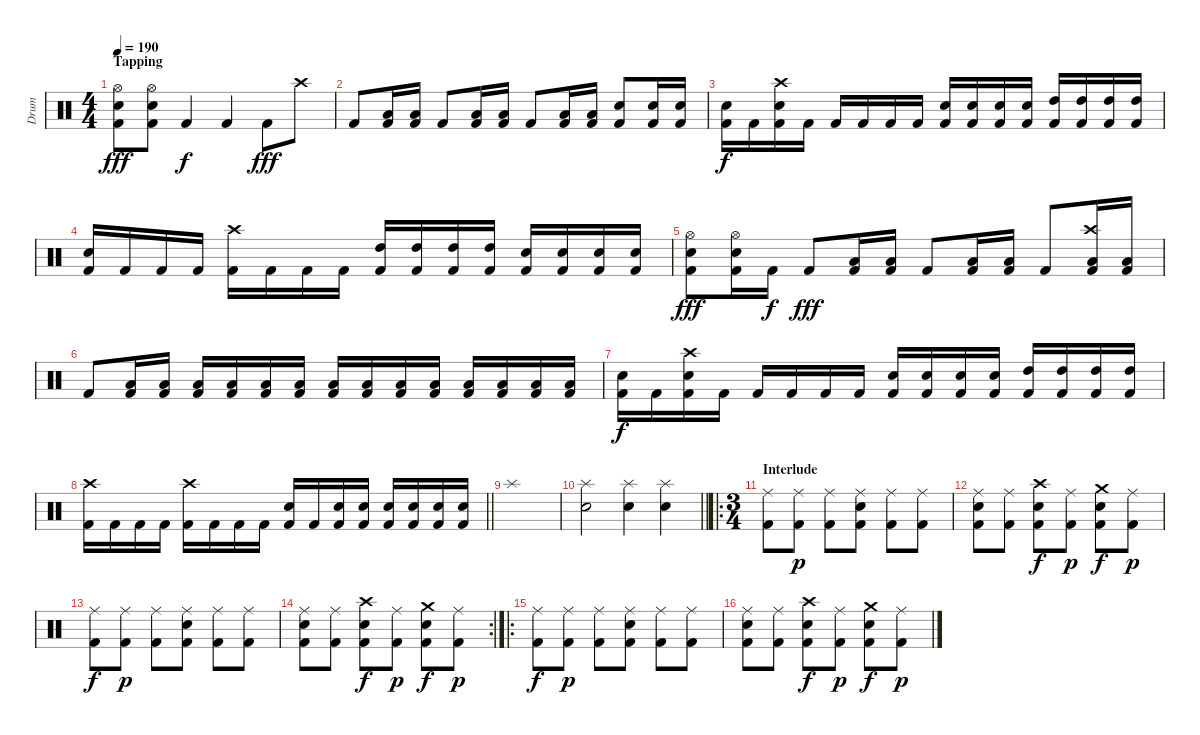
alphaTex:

\track ("Drum" "Drum") {instrument percussion}
\staff {score}
\articulation defaults
\ts (4 4)
\section ("" "Tapping")
\tempo 190
\clef neutral
\ks c
("Hi-Hat (open)" "Snare (hit) 2" "Kick (hit) 2").8{dy fff} ("Hi-Hat (open)" "Snare (hit) 2" "Kick (hit) 2").8 "Kick (hit) 2".4{dy f} "Kick (hit) 2".4 "Kick (hit) 2".8{dy fff} "Crash high (hit)".8 |
"Kick (hit) 2".8 ("Low Floor Tom (hit)" "Kick (hit) 2").16 ("Low Floor Tom (hit)" "Kick (hit) 2").16 "Kick (hit) 2".8 ("Low Floor Tom (hit)" "Kick (hit) 2").16 ("Low Floor Tom (hit)" "Kick (hit) 2").16 "Kick (hit) 2".8 ("Low Floor Tom (hit)" "Kick (hit) 2").16 ("Low Floor Tom (hit)" "Kick (hit) 2").16 ("Snare (hit) 2" "Kick (hit) 2").8 ("Snare (hit) 2" "Kick (hit) 2").16 ("Snare (hit) 2" "Kick (hit) 2").16 |
("Snare (hit) 2" "Kick (hit) 2").16{dy f} "Kick (hit) 2".16 ("Crash high (hit)" "Snare (hit) 2" "Kick (hit) 2").16 "Kick (hit) 2".16 "Kick (hit) 2".16 "Kick (hit) 2".16 "Kick (hit) 2".16 "Kick (hit) 2".16 ("Snare (hit) 2" "Kick (hit) 2").16 ("Snare (hit) 2" "Kick (hit) 2").16 ("Snare (hit) 2" "Kick (hit) 2").16 ("Snare (hit) 2" "Kick (hit) 2").16 ("High Tom (hit)" "Kick (hit) 2").16 ("High Tom (hit)" "Kick (hit) 2").16 ("High Tom (hit)" "Kick (hit) 2").16 ("High Tom (hit)" "Kick (hit) 2").16 |
("Snare (hit) 2" "Kick (hit) 2").16 "Kick (hit) 2".16 "Kick (hit) 2".16 "Kick (hit) 2".16 ("Crash high (hit)" "Kick (hit) 2").16 "Kick (hit) 2".16 "Kick (hit) 2".16 "Kick (hit) 2".16 ("High Tom (hit)" "Kick (hit) 2").16 ("High Tom (hit)" "Kick (hit) 2").16 ("High Tom (hit)" "Kick (hit) 2").16 ("High Tom (hit)" "Kick (hit) 2").16 ("Snare (hit) 2" "Kick (hit) 2").16 ("Snare (hit) 2" "Kick (hit) 2").16 ("Snare (hit) 2" "Kick (hit) 2").16 ("Snare (hit) 2" "Kick (hit) 2").16 |
("Hi-Hat (open)" "Snare (hit) 2" "Kick (hit) 2").8{dy fff} ("Hi-Hat (open)" "Snare (hit) 2" "Kick (hit) 2").16 "Kick (hit) 2".16{dy f} "Kick (hit) 2".8{dy fff} ("Low Floor Tom (hit)" "Kick (hit) 2").16 ("Low Floor Tom (hit)" "Kick (hit) 2").16 "Kick (hit) 2".8 ("Low Floor Tom (hit)" "Kick (hit) 2").16 ("Low Floor Tom (hit)" "Kick (hit) 2").16 "Kick (hit) 2".8 ("Crash high (hit)" "Low Floor Tom (hit)" "Kick (hit) 2").16 ("Low Floor Tom (hit)" "Kick (hit) 2").16 |
"Kick (hit) 2".8 ("Low Floor Tom (hit)" "Kick (hit) 2").16 ("Low Floor Tom (hit)" "Kick (hit) 2").16 ("Low Floor Tom (hit)" "Kick (hit) 2").16 ("Low Floor Tom (hit)" "Kick (hit) 2").16 ("Low Floor Tom (hit)" "Kick (hit) 2").16 ("Low Floor Tom (hit)" "Kick (hit) 2").16 ("Low Floor Tom (hit)" "Kick (hit) 2").16 ("Low Floor Tom (hit)" "Kick (hit) 2").16 ("Low Floor Tom (hit)" "Kick (hit) 2").16 ("Low Floor Tom (hit)" "Kick (hit) 2").16 ("Low Floor Tom (hit)" "Kick (hit) 2").16 ("Low Floor Tom (hit)" "Kick (hit) 2").16 ("Low Floor Tom (hit)" "Kick (hit) 2").16 ("Low Floor Tom (hit)" "Kick (hit) 2").16 |
("Snare (hit) 2" "Kick (hit) 2").16{dy f} "Kick (hit) 2".16 ("Crash high (hit)" "Snare (hit) 2" "Kick (hit) 2").16 "Kick (hit) 2".16 "Kick (hit) 2".16 "Kick (hit) 2".16 "Kick (hit) 2".16 "Kick (hit) 2".16 ("Snare (hit) 2" "Kick (hit) 2").16 ("Snare (hit) 2" "Kick (hit) 2").16 ("Snare (hit) 2" "Kick (hit) 2").16 ("Snare (hit) 2" "Kick (hit) 2").16 ("High Tom (hit)" "Kick (hit) 2").16 ("High Tom (hit)" "Kick (hit) 2").16 ("High Tom (hit)" "Kick (hit) 2").16 ("High Tom (hit)" "Kick (hit) 2").16 |
\barLineRight lightlight
("Crash high (hit)" "Kick (hit) 2").16 "Kick (hit) 2".16 "Kick (hit) 2".16 "Kick (hit) 2".16 ("Crash high (hit)" "Kick (hit) 2").16 "Kick (hit) 2".16 "Kick (hit) 2".16 "Kick (hit) 2".16 ("Snare (hit) 2" "Kick (hit) 2").16 "Kick (hit) 2".16 ("Snare (hit) 2" "Kick (hit) 2").16 ("Snare (hit) 2" "Kick (hit) 2").16 ("Electric Snare (hit)" "Kick (hit) 2").16 ("Electric Snare (hit)" "Kick (hit) 2").16 ("Electric Snare (hit)" "Kick (hit) 2").16 ("Electric Snare (hit)" "Kick (hit) 2").16 |
"Splash (hit)".1 |
\barLineRight lightlight
("Splash (hit)" "Snare (hit) 2").2 ("Splash (hit)" "Electric Snare (hit)").4 ("Splash (hit)" "Snare (hit) 2").4 |
\ro
\ts (3 4)
\section ("" "Interlude")
("Ride (middle)" "Kick (hit) 2").8 ("Ride (middle)" "Kick (hit) 2").8{dy p} ("Ride (middle)" "Kick (hit) 2").8 ("Ride (middle)" "Snare (hit) 2" "Kick (hit) 2").8 ("Ride (middle)" "Kick (hit) 2").8 ("Ride (middle)" "Kick (hit) 2").8 |
("Ride (middle)" "Snare (hit) 2" "Kick (hit) 2").8 ("Ride (middle)" "Kick (hit) 2").8 ("Crash high (hit)" "Snare (hit) 2" "Kick (hit) 2").8{dy f} ("Ride (middle)" "Kick (hit) 2").8{dy p} ("Crash medium (hit)" "Snare (hit) 2" "Kick (hit) 2").8{dy f} ("Ride (middle)" "Kick (hit) 2").8{dy p} |
("Ride (middle)" "Kick (hit) 2").8{dy f} ("Ride (middle)" "Kick (hit) 2").8{dy p} ("Ride (middle)" "Kick (hit) 2").8 ("Ride (middle)" "Snare (hit) 2" "Kick (hit) 2").8 ("Ride (middle)" "Kick (hit) 2").8 ("Ride (middle)" "Kick (hit) 2").8 |
\rc 2
("Ride (middle)" "Snare (hit) 2" "Kick (hit) 2").8 ("Ride (middle)" "Kick (hit) 2").8 ("Crash high (hit)" "Snare (hit) 2" "Kick (hit) 2").8{dy f} ("Ride (middle)" "Kick (hit) 2").8{dy p} ("Crash medium (hit)" "Snare (hit) 2" "Kick (hit) 2").8{dy f} ("Ride (middle)" "Kick (hit) 2").8{dy p} |
\ro
("Ride (middle)" "Kick (hit) 2").8{dy f} ("Ride (middle)" "Kick (hit) 2").8{dy p} ("Ride (middle)" "Kick (hit) 2").8 ("Ride (middle)" "Snare (hit) 2" "Kick (hit) 2").8 ("Ride (middle)" "Kick (hit) 2").8 ("Ride (middle)" "Kick (hit) 2").8 |
("Ride (middle)" "Snare (hit) 2" "Kick (hit) 2").8 ("Ride (middle)" "Kick (hit) 2").8 ("Crash high (hit)" "Snare (hit) 2" "Kick (hit) 2").8{dy f} ("Ride (middle)" "Kick (hit) 2").8{dy p} ("Crash medium (hit)" "Snare (hit) 2" "Kick (hit) 2").8{dy f} ("Ride (middle)" "Kick (hit) 2").8{dy p}
